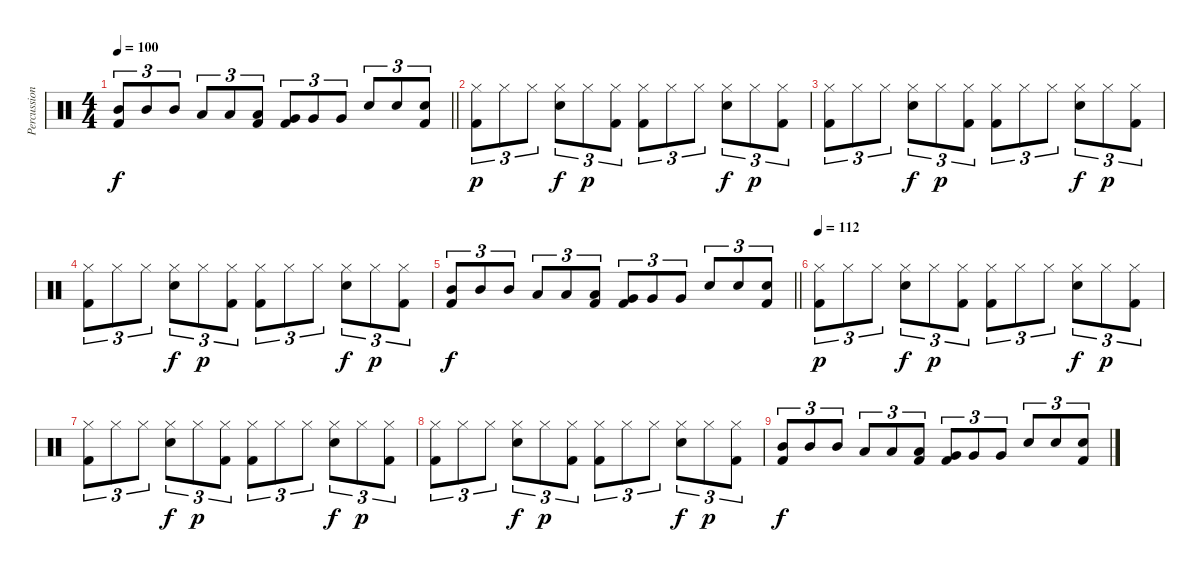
\track ("Percussion" "Percussion") {instrument percussion}
\staff {score}
\articulation defaults
\ts (4 4)
\tempo 100
\clef neutral
\barLineRight lightlight
\ks c
("Mid Tom (hit)" "Kick (hit) 2").8{tu (3 2) dy f} "Mid Tom (hit)".8{tu (3 2)} "Mid Tom (hit)".8{tu (3 2)} "Low Tom (hit)".8{tu (3 2)} "Low Tom (hit)".8{tu (3 2)} ("Low Tom (hit)" "Kick (hit) 2").8{tu (3 2)} ("Very Low Tom (hit)" "Kick (hit) 2").8{tu (3 2)} "Very Low Tom (hit)".8{tu (3 2)} "Very Low Tom (hit)".8{tu (3 2)} "Snare (hit) 2".8{tu (3 2)} "Snare (hit) 2".8{tu (3 2)} ("Snare (hit) 2" "Kick (hit) 2").8{tu (3 2)} |
("Hi-Hat (closed)" "Kick (hit) 2").8{tu (3 2) dy p} "Hi-Hat (closed)".8{tu (3 2)} "Hi-Hat (closed)".8{tu (3 2)} ("Hi-Hat (closed)" "Snare (hit) 2").8{tu (3 2) dy f} "Hi-Hat (closed)".8{tu (3 2) dy p} ("Hi-Hat (closed)" "Kick (hit) 2").8{tu (3 2)} ("Hi-Hat (closed)" "Kick (hit) 2").8{tu (3 2)} "Hi-Hat (closed)".8{tu (3 2)} "Hi-Hat (closed)".8{tu (3 2)} ("Hi-Hat (closed)" "Snare (hit) 2").8{tu (3 2) dy f} "Hi-Hat (closed)".8{tu (3 2) dy p} ("Hi-Hat (closed)" "Kick (hit) 2").8{tu (3 2)} |
("Hi-Hat (closed)" "Kick (hit) 2").8{tu (3 2)} "Hi-Hat (closed)".8{tu (3 2)} "Hi-Hat (closed)".8{tu (3 2)} ("Hi-Hat (closed)" "Snare (hit) 2").8{tu (3 2) dy f} "Hi-Hat (closed)".8{tu (3 2) dy p} ("Hi-Hat (closed)" "Kick (hit) 2").8{tu (3 2)} ("Hi-Hat (closed)" "Kick (hit) 2").8{tu (3 2)} "Hi-Hat (closed)".8{tu (3 2)} "Hi-Hat (closed)".8{tu (3 2)} ("Hi-Hat (closed)" "Snare (hit) 2").8{tu (3 2) dy f} "Hi-Hat (closed)".8{tu (3 2) dy p} ("Hi-Hat (closed)" "Kick (hit) 2").8{tu (3 2)} |
("Hi-Hat (closed)" "Kick (hit) 2").8{tu (3 2)} "Hi-Hat (closed)".8{tu (3 2)} "Hi-Hat (closed)".8{tu (3 2)} ("Hi-Hat (closed)" "Snare (hit) 2").8{tu (3 2) dy f} "Hi-Hat (closed)".8{tu (3 2) dy p} ("Hi-Hat (closed)" "Kick (hit) 2").8{tu (3 2)} ("Hi-Hat (closed)" "Kick (hit) 2").8{tu (3 2)} "Hi-Hat (closed)".8{tu (3 2)} "Hi-Hat (closed)".8{tu (3 2)} ("Hi-Hat (closed)" "Snare (hit) 2").8{tu (3 2) dy f} "Hi-Hat (closed)".8{tu (3 2) dy p} ("Hi-Hat (closed)" "Kick (hit) 2").8{tu (3 2)} |
\barLineRight lightlight
("Mid Tom (hit)" "Kick (hit) 2").8{tu (3 2) dy f} "Mid Tom (hit)".8{tu (3 2)} "Mid Tom (hit)".8{tu (3 2)} "Low Tom (hit)".8{tu (3 2)} "Low Tom (hit)".8{tu (3 2)} ("Low Tom (hit)" "Kick (hit) 2").8{tu (3 2)} ("Very Low Tom (hit)" "Kick (hit) 2").8{tu (3 2)} "Very Low Tom (hit)".8{tu (3 2)} "Very Low Tom (hit)".8{tu (3 2)} "Snare (hit) 2".8{tu (3 2)} "Snare (hit) 2".8{tu (3 2)} ("Snare (hit) 2" "Kick (hit) 2").8{tu (3 2)} |
\tempo 112
("Hi-Hat (closed)" "Kick (hit) 2").8{tu (3 2) dy p} "Hi-Hat (closed)".8{tu (3 2)} "Hi-Hat (closed)".8{tu (3 2)} ("Hi-Hat (closed)" "Snare (hit) 2").8{tu (3 2) dy f} "Hi-Hat (closed)".8{tu (3 2) dy p} ("Hi-Hat (closed)" "Kick (hit) 2").8{tu (3 2)} ("Hi-Hat (closed)" "Kick (hit) 2").8{tu (3 2)} "Hi-Hat (closed)".8{tu (3 2)} "Hi-Hat (closed)".8{tu (3 2)} ("Hi-Hat (closed)" "Snare (hit) 2").8{tu (3 2) dy f} "Hi-Hat (closed)".8{tu (3 2) dy p} ("Hi-Hat (closed)" "Kick (hit) 2").8{tu (3 2)} |
("Hi-Hat (closed)" "Kick (hit) 2").8{tu (3 2)} "Hi-Hat (closed)".8{tu (3 2)} "Hi-Hat (closed)".8{tu (3 2)} ("Hi-Hat (closed)" "Snare (hit) 2").8{tu (3 2) dy f} "Hi-Hat (closed)".8{tu (3 2) dy p} ("Hi-Hat (closed)" "Kick (hit) 2").8{tu (3 2)} ("Hi-Hat (closed)" "Kick (hit) 2").8{tu (3 2)} "Hi-Hat (closed)".8{tu (3 2)} "Hi-Hat (closed)".8{tu (3 2)} ("Hi-Hat (closed)" "Snare (hit) 2").8{tu (3 2) dy f} "Hi-Hat (closed)".8{tu (3 2) dy p} ("Hi-Hat (closed)" "Kick (hit) 2").8{tu (3 2)} |
("Hi-Hat (closed)" "Kick (hit) 2").8{tu (3 2)} "Hi-Hat (closed)".8{tu (3 2)} "Hi-Hat (closed)".8{tu (3 2)} ("Hi-Hat (closed)" "Snare (hit) 2").8{tu (3 2) dy f} "Hi-Hat (closed)".8{tu (3 2) dy p} ("Hi-Hat (closed)" "Kick (hit) 2").8{tu (3 2)} ("Hi-Hat (closed)" "Kick (hit) 2").8{tu (3 2)} "Hi-Hat (closed)".8{tu (3 2)} "Hi-Hat (closed)".8{tu (3 2)} ("Hi-Hat (closed)" "Snare (hit) 2").8{tu (3 2) dy f} "Hi-Hat (closed)".8{tu (3 2) dy p} ("Hi-Hat (closed)" "Kick (hit) 2").8{tu (3 2)} |
("Mid Tom (hit)" "Kick (hit) 2").8{tu (3 2) dy f} "Mid Tom (hit)".8{tu (3 2)} "Mid Tom (hit)".8{tu (3 2)} "Low Tom (hit)".8{tu (3 2)} "Low Tom (hit)".8{tu (3 2)} ("Low Tom (hit)" "Kick (hit) 2").8{tu (3 2)} ("Very Low Tom (hit)" "Kick (hit) 2").8{tu (3 2)} "Very Low Tom (hit)".8{tu (3 2)} "Very Low Tom (hit)".8{tu (3 2)} "Snare (hit) 2".8{tu (3 2)} "Snare (hit) 2".8{tu (3 2)} ("Snare (hit) 2" "Kick (hit) 2").8{tu (3 2)}
